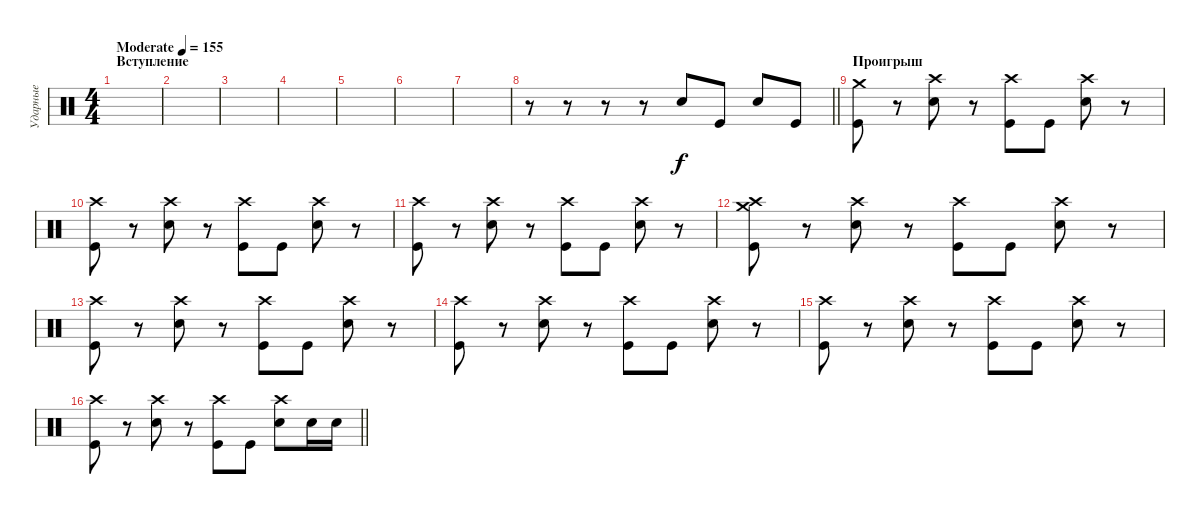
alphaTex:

\track ("Ударные" "Ударные") {instrument percussion}
\staff {score}
\articulation defaults
\ts (4 4)
\section ("" "Вступление")
\tempo (155 "Moderate")
\clef neutral
\ks c
|
|
|
|
|
|
|
\barLineRight lightlight
r.8 r.8 r.8 r.8 "Electric Snare (hit)".8 "Kick (hit)".8 "Electric Snare (hit)".8 "Kick (hit)".8 |
\section ("" "Проигрыш")
("Crash medium (hit)" "Kick (hit)").8 r.8 ("Crash high (hit)" "Electric Snare (hit)").8 r.8 ("Crash high (hit)" "Kick (hit)").8 "Kick (hit)".8 ("Crash high (hit)" "Electric Snare (hit)").8 r.8 |
("Crash high (hit)" "Kick (hit)").8 r.8 ("Crash high (hit)" "Electric Snare (hit)").8 r.8 ("Crash high (hit)" "Kick (hit)").8 "Kick (hit)".8 ("Crash high (hit)" "Electric Snare (hit)").8 r.8 |
("Crash high (hit)" "Kick (hit)").8 r.8 ("Crash high (hit)" "Electric Snare (hit)").8 r.8 ("Crash high (hit)" "Kick (hit)").8 "Kick (hit)".8 ("Crash high (hit)" "Electric Snare (hit)").8 r.8 |
("Crash high (hit)" "Kick (hit)" "Crash medium (hit)").8 r.8 ("Crash high (hit)" "Electric Snare (hit)").8 r.8 ("Crash high (hit)" "Kick (hit)").8 "Kick (hit)".8 ("Crash high (hit)" "Electric Snare (hit)").8 r.8 |
("Crash high (hit)" "Kick (hit)").8 r.8 ("Crash high (hit)" "Electric Snare (hit)").8 r.8 ("Crash high (hit)" "Kick (hit)").8 "Kick (hit)".8 ("Crash high (hit)" "Electric Snare (hit)").8 r.8 |
("Crash high (hit)" "Kick (hit)").8 r.8 ("Crash high (hit)" "Electric Snare (hit)").8 r.8 ("Crash high (hit)" "Kick (hit)").8 "Kick (hit)".8 ("Crash high (hit)" "Electric Snare (hit)").8 r.8 |
("Crash high (hit)" "Kick (hit)").8 r.8 ("Crash high (hit)" "Electric Snare (hit)").8 r.8 ("Crash high (hit)" "Kick (hit)").8 "Kick (hit)".8 ("Crash high (hit)" "Electric Snare (hit)").8 r.8 |
\barLineRight lightlight
("Crash high (hit)" "Kick (hit)").8 r.8 ("Crash high (hit)" "Electric Snare (hit)").8 r.8 ("Crash high (hit)" "Kick (hit)").8 "Kick (hit)".8 ("Crash high (hit)" "Electric Snare (hit)").8 "Electric Snare (hit)".16 "Electric Snare (hit)".16
